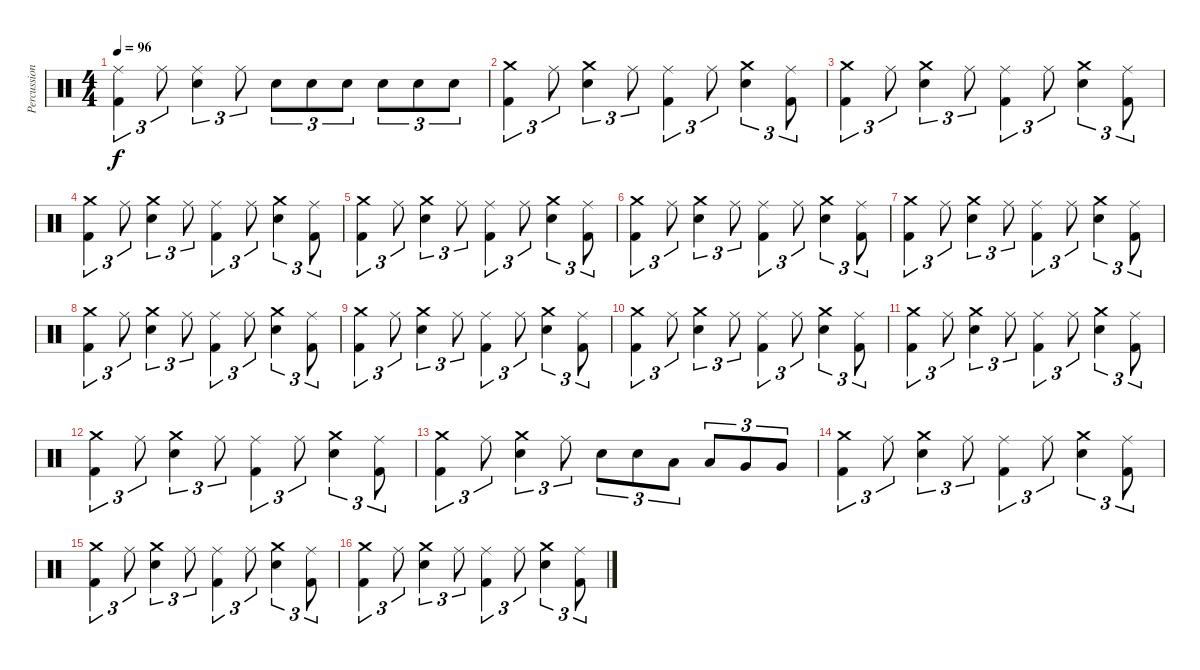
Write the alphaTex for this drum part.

\track ("Percussioni" "Percussion") {instrument percussion}
\staff {score}
\articulation defaults
\ts (4 4)
\tempo 96
\clef neutral
\ks c
("Kick (hit) 2" "Ride (middle)").4{tu (3 2) dy f} "Ride (middle)".8{tu (3 2)} ("Electric Snare (hit)" "Ride (middle)").4{tu (3 2)} "Ride (middle)".8{tu (3 2)} "Electric Snare (hit)".8{tu (3 2)} "Electric Snare (hit)".8{tu (3 2)} "Electric Snare (hit)".8{tu (3 2)} "Electric Snare (hit)".8{tu (3 2)} "Electric Snare (hit)".8{tu (3 2)} "Electric Snare (hit)".8{tu (3 2)} |
("Kick (hit) 2" "Crash medium (hit)").4{tu (3 2)} "Ride (middle)".8{tu (3 2)} ("Electric Snare (hit)" "Crash medium (hit)").4{tu (3 2)} "Ride (middle)".8{tu (3 2)} ("Kick (hit) 2" "Ride (middle)").4{tu (3 2)} "Ride (middle)".8{tu (3 2)} ("Electric Snare (hit)" "Crash medium (hit)").4{tu (3 2)} ("Kick (hit) 2" "Ride (middle)").8{tu (3 2)} |
("Kick (hit) 2" "Crash medium (hit)").4{tu (3 2)} "Ride (middle)".8{tu (3 2)} ("Electric Snare (hit)" "Crash medium (hit)").4{tu (3 2)} "Ride (middle)".8{tu (3 2)} ("Kick (hit) 2" "Ride (middle)").4{tu (3 2)} "Ride (middle)".8{tu (3 2)} ("Electric Snare (hit)" "Crash medium (hit)").4{tu (3 2)} ("Kick (hit) 2" "Ride (middle)").8{tu (3 2)} |
("Kick (hit) 2" "Crash medium (hit)").4{tu (3 2)} "Ride (middle)".8{tu (3 2)} ("Electric Snare (hit)" "Crash medium (hit)").4{tu (3 2)} "Ride (middle)".8{tu (3 2)} ("Kick (hit) 2" "Ride (middle)").4{tu (3 2)} "Ride (middle)".8{tu (3 2)} ("Electric Snare (hit)" "Crash medium (hit)").4{tu (3 2)} ("Kick (hit) 2" "Ride (middle)").8{tu (3 2)} |
("Kick (hit) 2" "Crash medium (hit)").4{tu (3 2)} "Ride (middle)".8{tu (3 2)} ("Electric Snare (hit)" "Crash medium (hit)").4{tu (3 2)} "Ride (middle)".8{tu (3 2)} ("Kick (hit) 2" "Ride (middle)").4{tu (3 2)} "Ride (middle)".8{tu (3 2)} ("Electric Snare (hit)" "Crash medium (hit)").4{tu (3 2)} ("Kick (hit) 2" "Ride (middle)").8{tu (3 2)} |
("Kick (hit) 2" "Crash medium (hit)").4{tu (3 2)} "Ride (middle)".8{tu (3 2)} ("Electric Snare (hit)" "Crash medium (hit)").4{tu (3 2)} "Ride (middle)".8{tu (3 2)} ("Kick (hit) 2" "Ride (middle)").4{tu (3 2)} "Ride (middle)".8{tu (3 2)} ("Electric Snare (hit)" "Crash medium (hit)").4{tu (3 2)} ("Kick (hit) 2" "Ride (middle)").8{tu (3 2)} |
("Kick (hit) 2" "Crash medium (hit)").4{tu (3 2)} "Ride (middle)".8{tu (3 2)} ("Electric Snare (hit)" "Crash medium (hit)").4{tu (3 2)} "Ride (middle)".8{tu (3 2)} ("Kick (hit) 2" "Ride (middle)").4{tu (3 2)} "Ride (middle)".8{tu (3 2)} ("Electric Snare (hit)" "Crash medium (hit)").4{tu (3 2)} ("Kick (hit) 2" "Ride (middle)").8{tu (3 2)} |
("Kick (hit) 2" "Crash medium (hit)").4{tu (3 2)} "Ride (middle)".8{tu (3 2)} ("Electric Snare (hit)" "Crash medium (hit)").4{tu (3 2)} "Ride (middle)".8{tu (3 2)} ("Kick (hit) 2" "Ride (middle)").4{tu (3 2)} "Ride (middle)".8{tu (3 2)} ("Electric Snare (hit)" "Crash medium (hit)").4{tu (3 2)} ("Kick (hit) 2" "Ride (middle)").8{tu (3 2)} |
("Kick (hit) 2" "Crash medium (hit)").4{tu (3 2)} "Ride (middle)".8{tu (3 2)} ("Electric Snare (hit)" "Crash medium (hit)").4{tu (3 2)} "Ride (middle)".8{tu (3 2)} ("Kick (hit) 2" "Ride (middle)").4{tu (3 2)} "Ride (middle)".8{tu (3 2)} ("Electric Snare (hit)" "Crash medium (hit)").4{tu (3 2)} ("Kick (hit) 2" "Ride (middle)").8{tu (3 2)} |
("Kick (hit) 2" "Crash medium (hit)").4{tu (3 2)} "Ride (middle)".8{tu (3 2)} ("Electric Snare (hit)" "Crash medium (hit)").4{tu (3 2)} "Ride (middle)".8{tu (3 2)} ("Kick (hit) 2" "Ride (middle)").4{tu (3 2)} "Ride (middle)".8{tu (3 2)} ("Electric Snare (hit)" "Crash medium (hit)").4{tu (3 2)} ("Kick (hit) 2" "Ride (middle)").8{tu (3 2)} |
("Kick (hit) 2" "Crash medium (hit)").4{tu (3 2)} "Ride (middle)".8{tu (3 2)} ("Electric Snare (hit)" "Crash medium (hit)").4{tu (3 2)} "Ride (middle)".8{tu (3 2)} ("Kick (hit) 2" "Ride (middle)").4{tu (3 2)} "Ride (middle)".8{tu (3 2)} ("Electric Snare (hit)" "Crash medium (hit)").4{tu (3 2)} ("Kick (hit) 2" "Ride (middle)").8{tu (3 2)} |
("Kick (hit) 2" "Crash medium (hit)").4{tu (3 2)} "Ride (middle)".8{tu (3 2)} ("Electric Snare (hit)" "Crash medium (hit)").4{tu (3 2)} "Ride (middle)".8{tu (3 2)} ("Kick (hit) 2" "Ride (middle)").4{tu (3 2)} "Ride (middle)".8{tu (3 2)} ("Electric Snare (hit)" "Crash medium (hit)").4{tu (3 2)} ("Kick (hit) 2" "Ride (middle)").8{tu (3 2)} |
("Kick (hit) 2" "Crash medium (hit)").4{tu (3 2)} "Ride (middle)".8{tu (3 2)} ("Electric Snare (hit)" "Crash medium (hit)").4{tu (3 2)} "Ride (middle)".8{tu (3 2)} "Electric Snare (hit)".8{tu (3 2)} "Electric Snare (hit)".8{tu (3 2)} "Low Tom (hit)".8{tu (3 2)} "Low Tom (hit)".8{tu (3 2)} "Very Low Tom (hit)".8{tu (3 2)} "Very Low Tom (hit)".8{tu (3 2)} |
("Kick (hit) 2" "Crash medium (hit)").4{tu (3 2)} "Ride (middle)".8{tu (3 2)} ("Electric Snare (hit)" "Crash medium (hit)").4{tu (3 2)} "Ride (middle)".8{tu (3 2)} ("Kick (hit) 2" "Ride (middle)").4{tu (3 2)} "Ride (middle)".8{tu (3 2)} ("Electric Snare (hit)" "Crash medium (hit)").4{tu (3 2)} ("Kick (hit) 2" "Ride (middle)").8{tu (3 2)} |
("Kick (hit) 2" "Crash medium (hit)").4{tu (3 2)} "Ride (middle)".8{tu (3 2)} ("Electric Snare (hit)" "Crash medium (hit)").4{tu (3 2)} "Ride (middle)".8{tu (3 2)} ("Kick (hit) 2" "Ride (middle)").4{tu (3 2)} "Ride (middle)".8{tu (3 2)} ("Electric Snare (hit)" "Crash medium (hit)").4{tu (3 2)} ("Kick (hit) 2" "Ride (middle)").8{tu (3 2)} |
("Kick (hit) 2" "Crash medium (hit)").4{tu (3 2)} "Ride (middle)".8{tu (3 2)} ("Electric Snare (hit)" "Crash medium (hit)").4{tu (3 2)} "Ride (middle)".8{tu (3 2)} ("Kick (hit) 2" "Ride (middle)").4{tu (3 2)} "Ride (middle)".8{tu (3 2)} ("Electric Snare (hit)" "Crash medium (hit)").4{tu (3 2)} ("Kick (hit) 2" "Ride (middle)").8{tu (3 2)}
